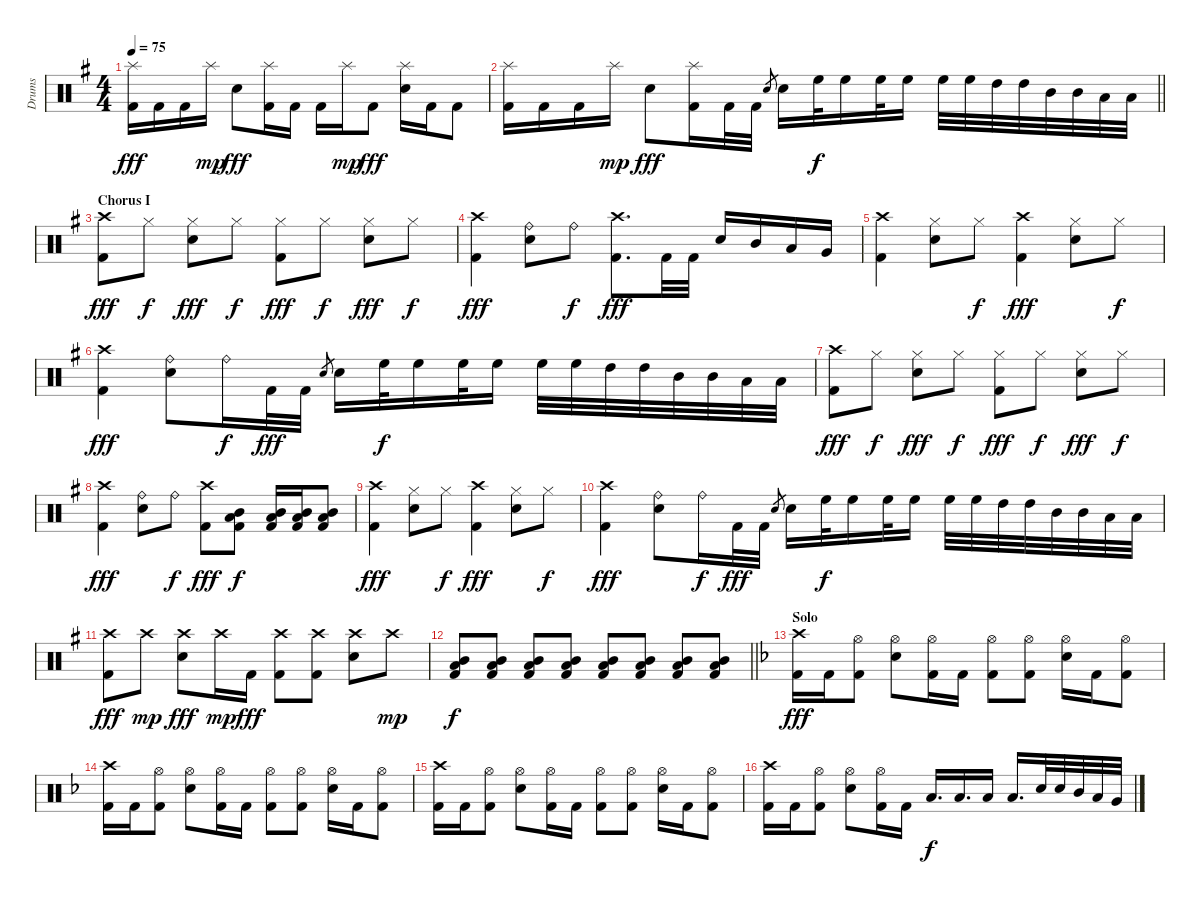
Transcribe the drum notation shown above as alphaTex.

\track ("Drums" "Drums") {instrument percussion}
\staff {score}
\articulation defaults
\ts (4 4)
\tempo 75
\clef neutral
\ks eminor
("Splash (hit)" "Kick (hit) 2").16{dy fff} "Kick (hit) 2".16 "Kick (hit) 2".16 "Splash (hit)".16{dy mp} "Snare (hit) 2".8{dy fff} ("Splash (hit)" "Kick (hit) 2").16 "Kick (hit) 2".16 "Kick (hit) 2".16 "Splash (hit)".16{dy mp} "Kick (hit) 2".8{dy fff} ("Splash (hit)" "Snare (hit) 2").16 "Kick (hit) 2".16 "Kick (hit) 2".8 |
\barLineRight lightlight
("Splash (hit)" "Kick (hit) 2").16 "Kick (hit) 2".16 "Kick (hit) 2".16 "Splash (hit)".16{dy mp} "Snare (hit) 2".8{dy fff} ("Splash (hit)" "Kick (hit) 2").16 "Kick (hit) 2".32 "Kick (hit) 2".32 "Snare (hit) 2".8{gr} "Snare (hit) 2".16 "High Floor Tom (hit)".32{dy f} "High Floor Tom (hit)".16 "High Floor Tom (hit)".32 "High Floor Tom (hit)".16 "High Floor Tom (hit)".32 "High Floor Tom (hit)".32 "High Tom (hit)".32 "High Tom (hit)".32 "Mid Tom (hit)".32 "Mid Tom (hit)".32 "Low Tom (hit)".32 "Low Tom (hit)".32 |
\section ("" "Chorus I")
("Crash high (hit)" "Kick (hit) 2").8{dy fff} "Hi-Hat (closed)".8{dy f} ("Hi-Hat (closed)" "Snare (hit) 2").8{dy fff} "Hi-Hat (closed)".8{dy f} ("Hi-Hat (closed)" "Kick (hit) 2").8{dy fff} "Hi-Hat (closed)".8{dy f} ("Hi-Hat (closed)" "Snare (hit) 2").8{dy fff} "Hi-Hat (closed)".8{dy f} |
("Crash high (hit)" "Kick (hit) 2").4{dy fff} ("Ride (bell)" "Snare (hit) 2").8 "Ride (bell)".8{dy f} ("Crash high (hit)" "Kick (hit) 2").8{d dy fff} "Kick (hit) 2".32 "Kick (hit) 2".32 "Snare (hit) 2".16 "Mid Tom (hit)".16 "Low Tom (hit)".16 "Very Low Tom (hit)".16 |
("Crash high (hit)" "Kick (hit) 2").4 ("Hi-Hat (closed)" "Snare (hit) 2").8 "Hi-Hat (closed)".8{dy f} ("Crash high (hit)" "Kick (hit) 2").4{dy fff} ("Hi-Hat (closed)" "Snare (hit) 2").8 "Hi-Hat (closed)".8{dy f} |
("Crash high (hit)" "Kick (hit) 2").4{dy fff} ("Ride (bell)" "Snare (hit) 2").8 "Ride (bell)".16{dy f} "Kick (hit) 2".32{dy fff} "Kick (hit) 2".32 "Snare (hit) 2".8{gr} "Snare (hit) 2".16 "High Floor Tom (hit)".32{dy f} "High Floor Tom (hit)".16 "High Floor Tom (hit)".32 "High Floor Tom (hit)".16 "High Floor Tom (hit)".32 "High Floor Tom (hit)".32 "High Tom (hit)".32 "High Tom (hit)".32 "Mid Tom (hit)".32 "Mid Tom (hit)".32 "Low Tom (hit)".32 "Low Tom (hit)".32 |
("Crash high (hit)" "Kick (hit) 2").8{dy fff} "Hi-Hat (closed)".8{dy f} ("Hi-Hat (closed)" "Snare (hit) 2").8{dy fff} "Hi-Hat (closed)".8{dy f} ("Hi-Hat (closed)" "Kick (hit) 2").8{dy fff} "Hi-Hat (closed)".8{dy f} ("Hi-Hat (closed)" "Snare (hit) 2").8{dy fff} "Hi-Hat (closed)".8{dy f} |
("Crash high (hit)" "Kick (hit) 2").4{dy fff} ("Ride (bell)" "Snare (hit) 2").8 "Ride (bell)".8{dy f} ("Crash high (hit)" "Kick (hit) 2").8{dy fff} ("Mid Tom (hit)" "Low Tom (hit)" "Kick (hit) 2").8{dy f} ("Mid Tom (hit)" "Low Tom (hit)" "Kick (hit) 2").16 ("Mid Tom (hit)" "Low Tom (hit)" "Kick (hit) 2").16 ("Mid Tom (hit)" "Low Tom (hit)" "Kick (hit) 2").8 |
("Crash high (hit)" "Kick (hit) 2").4{dy fff} ("Hi-Hat (closed)" "Snare (hit) 2").8 "Hi-Hat (closed)".8{dy f} ("Crash high (hit)" "Kick (hit) 2").4{dy fff} ("Hi-Hat (closed)" "Snare (hit) 2").8 "Hi-Hat (closed)".8{dy f} |
("Crash high (hit)" "Kick (hit) 2").4{dy fff} ("Ride (bell)" "Snare (hit) 2").8 "Ride (bell)".16{dy f} "Kick (hit) 2".32{dy fff} "Kick (hit) 2".32 "Snare (hit) 2".8{gr} "Snare (hit) 2".16 "High Floor Tom (hit)".32{dy f} "High Floor Tom (hit)".16 "High Floor Tom (hit)".32 "High Floor Tom (hit)".16 "High Floor Tom (hit)".32 "High Floor Tom (hit)".32 "High Tom (hit)".32 "High Tom (hit)".32 "Mid Tom (hit)".32 "Mid Tom (hit)".32 "Low Tom (hit)".32 "Low Tom (hit)".32 |
("Crash high (hit)" "Kick (hit) 2").8{dy fff} "Crash high (hit)".8{dy mp} ("Crash high (hit)" "Snare (hit) 2").8{dy fff} "Crash high (hit)".16{dy mp} "Kick (hit) 2".16{dy fff} ("Crash high (hit)" "Kick (hit) 2").8 ("Crash high (hit)" "Kick (hit) 2").8 ("Crash high (hit)" "Snare (hit) 2").8 "Crash high (hit)".8{dy mp} |
\barLineRight lightlight
("Mid Tom (hit)" "Low Tom (hit)" "Kick (hit) 2").8{dy f} ("Mid Tom (hit)" "Low Tom (hit)" "Kick (hit) 2").8 ("Mid Tom (hit)" "Low Tom (hit)" "Kick (hit) 2").8 ("Mid Tom (hit)" "Low Tom (hit)" "Kick (hit) 2").8 ("Mid Tom (hit)" "Low Tom (hit)" "Kick (hit) 2").8 ("Mid Tom (hit)" "Low Tom (hit)" "Kick (hit) 2").8 ("Mid Tom (hit)" "Low Tom (hit)" "Kick (hit) 2").8 ("Mid Tom (hit)" "Low Tom (hit)" "Kick (hit) 2").8 |
\section ("" "Solo")
\ks dminor
("Crash high (hit)" "Kick (hit) 2").16{dy fff} "Kick (hit) 2".16 ("Hi-Hat (open)" "Kick (hit) 2").8 ("Hi-Hat (open)" "Snare (hit) 2").8 ("Hi-Hat (open)" "Kick (hit) 2").16 "Kick (hit) 2".16 ("Hi-Hat (open)" "Kick (hit) 2").8 ("Hi-Hat (open)" "Kick (hit) 2").8 ("Hi-Hat (open)" "Snare (hit) 2").16 "Kick (hit) 2".16 ("Hi-Hat (open)" "Kick (hit) 2").8 |
("Crash high (hit)" "Kick (hit) 2").16 "Kick (hit) 2".16 ("Hi-Hat (open)" "Kick (hit) 2").8 ("Hi-Hat (open)" "Snare (hit) 2").8 ("Hi-Hat (open)" "Kick (hit) 2").16 "Kick (hit) 2".16 ("Hi-Hat (open)" "Kick (hit) 2").8 ("Hi-Hat (open)" "Kick (hit) 2").8 ("Hi-Hat (open)" "Snare (hit) 2").16 "Kick (hit) 2".16 ("Hi-Hat (open)" "Kick (hit) 2").8 |
("Crash high (hit)" "Kick (hit) 2").16 "Kick (hit) 2".16 ("Hi-Hat (open)" "Kick (hit) 2").8 ("Hi-Hat (open)" "Snare (hit) 2").8 ("Hi-Hat (open)" "Kick (hit) 2").16 "Kick (hit) 2".16 ("Hi-Hat (open)" "Kick (hit) 2").8 ("Hi-Hat (open)" "Kick (hit) 2").8 ("Hi-Hat (open)" "Snare (hit) 2").16 "Kick (hit) 2".16 ("Hi-Hat (open)" "Kick (hit) 2").8 |
("Crash high (hit)" "Kick (hit) 2").16 "Kick (hit) 2".16 ("Hi-Hat (open)" "Kick (hit) 2").8 ("Hi-Hat (open)" "Snare (hit) 2").8 ("Hi-Hat (open)" "Kick (hit) 2").16 "Kick (hit) 2".16 "Low Tom (hit)".16{d dy f} "Low Tom (hit)".16{d} "Low Tom (hit)".16 "Low Tom (hit)".16{d} "Snare (hit) 2".32 "Snare (hit) 2".32 "Mid Tom (hit)".32 "Low Tom (hit)".32 "Very Low Tom (hit)".32
